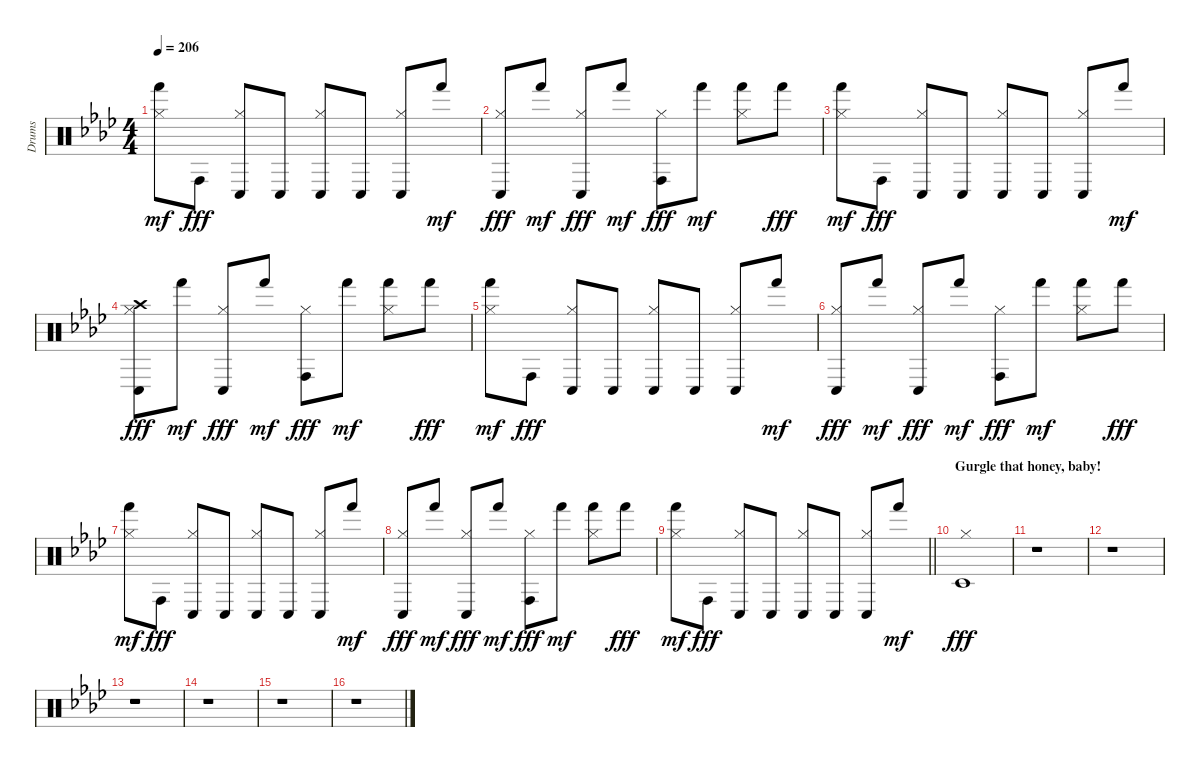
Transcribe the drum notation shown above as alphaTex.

\track ("Drums" "Drums") {instrument percussion}
\staff {score}
\articulation defaults
\ts (4 4)
\tempo 206
\clef neutral
\ks ab
("Hi-Hat (closed)" "Hand (hit)").8{dy mf} "Conga high (hit)".8{dy fff} ("Hi-Hat (closed)" "Conga low (hit)").8 "Conga low (hit)".8 ("Hi-Hat (closed)" "Conga low (hit)").8 "Conga low (hit)".8 ("Hi-Hat (closed)" "Conga low (hit)").8 "Hand (hit)".8{dy mf} |
("Hi-Hat (closed)" "Conga low (hit)").8{dy fff} "Hand (hit)".8{dy mf} ("Hi-Hat (closed)" "Conga low (hit)").8{dy fff} "Hand (hit)".8{dy mf} ("Hi-Hat (closed)" "Conga high (hit)").8{dy fff} "Hand (hit)".8{dy mf} ("Hi-Hat (closed)" "Hand (hit)").8 "Hand (hit)".8{dy fff} |
("Hi-Hat (closed)" "Hand (hit)").8{dy mf} "Conga high (hit)".8{dy fff} ("Hi-Hat (closed)" "Conga low (hit)").8 "Conga low (hit)".8 ("Hi-Hat (closed)" "Conga low (hit)").8 "Conga low (hit)".8 ("Hi-Hat (closed)" "Conga low (hit)").8 "Hand (hit)".8{dy mf} |
("Hi-Hat (closed)" "Crash high (hit)" "Conga low (hit)").8{dy fff} "Hand (hit)".8{dy mf} ("Hi-Hat (closed)" "Conga low (hit)").8{dy fff} "Hand (hit)".8{dy mf} ("Hi-Hat (closed)" "Conga high (hit)").8{dy fff} "Hand (hit)".8{dy mf} ("Hi-Hat (closed)" "Hand (hit)").8 "Hand (hit)".8{dy fff} |
("Hi-Hat (closed)" "Hand (hit)").8{dy mf} "Conga high (hit)".8{dy fff} ("Hi-Hat (closed)" "Conga low (hit)").8 "Conga low (hit)".8 ("Hi-Hat (closed)" "Conga low (hit)").8 "Conga low (hit)".8 ("Hi-Hat (closed)" "Conga low (hit)").8 "Hand (hit)".8{dy mf} |
("Hi-Hat (closed)" "Conga low (hit)").8{dy fff} "Hand (hit)".8{dy mf} ("Hi-Hat (closed)" "Conga low (hit)").8{dy fff} "Hand (hit)".8{dy mf} ("Hi-Hat (closed)" "Conga high (hit)").8{dy fff} "Hand (hit)".8{dy mf} ("Hi-Hat (closed)" "Hand (hit)").8 "Hand (hit)".8{dy fff} |
("Hi-Hat (closed)" "Hand (hit)").8{dy mf} "Conga high (hit)".8{dy fff} ("Hi-Hat (closed)" "Conga low (hit)").8 "Conga low (hit)".8 ("Hi-Hat (closed)" "Conga low (hit)").8 "Conga low (hit)".8 ("Hi-Hat (closed)" "Conga low (hit)").8 "Hand (hit)".8{dy mf} |
("Hi-Hat (closed)" "Conga low (hit)").8{dy fff} "Hand (hit)".8{dy mf} ("Hi-Hat (closed)" "Conga low (hit)").8{dy fff} "Hand (hit)".8{dy mf} ("Hi-Hat (closed)" "Conga high (hit)").8{dy fff} "Hand (hit)".8{dy mf} ("Hi-Hat (closed)" "Hand (hit)").8 "Hand (hit)".8{dy fff} |
\barLineRight lightlight
("Hi-Hat (closed)" "Hand (hit)").8{dy mf} "Conga high (hit)".8{dy fff} ("Hi-Hat (closed)" "Conga low (hit)").8 "Conga low (hit)".8 ("Hi-Hat (closed)" "Conga low (hit)").8 "Conga low (hit)".8 ("Hi-Hat (closed)" "Conga low (hit)").8 "Hand (hit)".8{dy mf} |
\section ("" "Gurgle that honey, baby!")
("Hi-Hat (closed)" "Timbale low (hit)").1{dy fff} |
r.1 |
r.1 |
r.1 |
r.1 |
r.1 |
r.1
